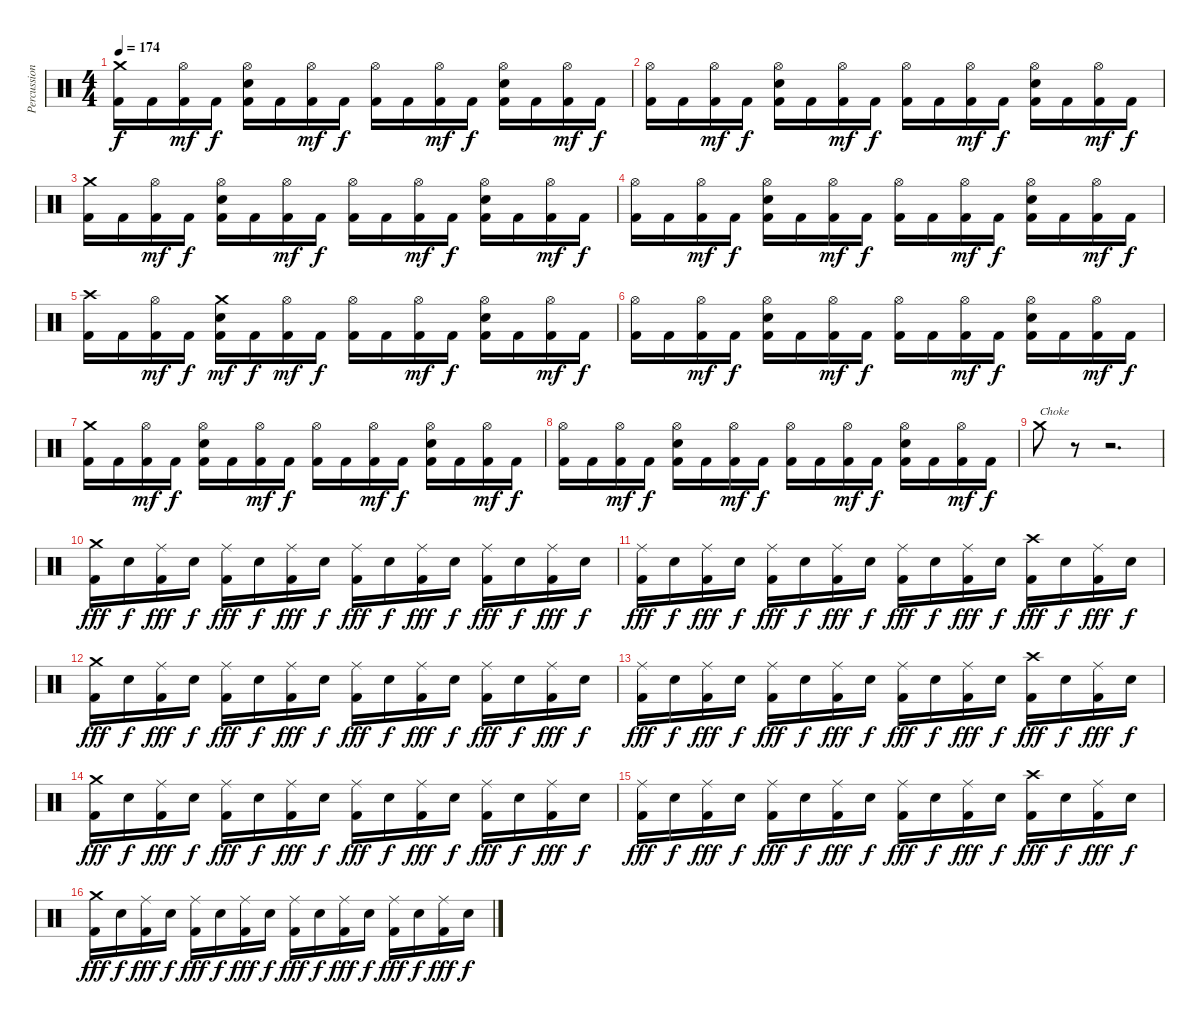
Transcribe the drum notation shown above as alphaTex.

\track ("Percussion" "Percussion") {instrument percussion}
\staff {score}
\articulation defaults
\ts (4 4)
\tempo 174
\clef neutral
\ks c
("Crash medium (hit)" "Kick (hit) 2").16{dy f} "Kick (hit) 2".16 ("Hi-Hat (open)" "Kick (hit) 2").16{dy mf} "Kick (hit) 2".16{dy f} ("Hi-Hat (open)" "Electric Snare (hit)" "Kick (hit) 2").16 "Kick (hit) 2".16 ("Hi-Hat (open)" "Kick (hit) 2").16{dy mf} "Kick (hit) 2".16{dy f} ("Hi-Hat (open)" "Kick (hit) 2").16 "Kick (hit) 2".16 ("Hi-Hat (open)" "Kick (hit) 2").16{dy mf} "Kick (hit) 2".16{dy f} ("Hi-Hat (open)" "Electric Snare (hit)" "Kick (hit) 2").16 "Kick (hit) 2".16 ("Hi-Hat (open)" "Kick (hit) 2").16{dy mf} "Kick (hit) 2".16{dy f} |
("Hi-Hat (open)" "Kick (hit) 2").16 "Kick (hit) 2".16 ("Hi-Hat (open)" "Kick (hit) 2").16{dy mf} "Kick (hit) 2".16{dy f} ("Hi-Hat (open)" "Electric Snare (hit)" "Kick (hit) 2").16 "Kick (hit) 2".16 ("Hi-Hat (open)" "Kick (hit) 2").16{dy mf} "Kick (hit) 2".16{dy f} ("Hi-Hat (open)" "Kick (hit) 2").16 "Kick (hit) 2".16 ("Hi-Hat (open)" "Kick (hit) 2").16{dy mf} "Kick (hit) 2".16{dy f} ("Hi-Hat (open)" "Electric Snare (hit)" "Kick (hit) 2").16 "Kick (hit) 2".16 ("Hi-Hat (open)" "Kick (hit) 2").16{dy mf} "Kick (hit) 2".16{dy f} |
("Crash medium (hit)" "Kick (hit) 2").16 "Kick (hit) 2".16 ("Hi-Hat (open)" "Kick (hit) 2").16{dy mf} "Kick (hit) 2".16{dy f} ("Hi-Hat (open)" "Electric Snare (hit)" "Kick (hit) 2").16 "Kick (hit) 2".16 ("Hi-Hat (open)" "Kick (hit) 2").16{dy mf} "Kick (hit) 2".16{dy f} ("Hi-Hat (open)" "Kick (hit) 2").16 "Kick (hit) 2".16 ("Hi-Hat (open)" "Kick (hit) 2").16{dy mf} "Kick (hit) 2".16{dy f} ("Hi-Hat (open)" "Electric Snare (hit)" "Kick (hit) 2").16 "Kick (hit) 2".16 ("Hi-Hat (open)" "Kick (hit) 2").16{dy mf} "Kick (hit) 2".16{dy f} |
("Hi-Hat (open)" "Kick (hit) 2").16 "Kick (hit) 2".16 ("Hi-Hat (open)" "Kick (hit) 2").16{dy mf} "Kick (hit) 2".16{dy f} ("Hi-Hat (open)" "Electric Snare (hit)" "Kick (hit) 2").16 "Kick (hit) 2".16 ("Hi-Hat (open)" "Kick (hit) 2").16{dy mf} "Kick (hit) 2".16{dy f} ("Hi-Hat (open)" "Kick (hit) 2").16 "Kick (hit) 2".16 ("Hi-Hat (open)" "Kick (hit) 2").16{dy mf} "Kick (hit) 2".16{dy f} ("Hi-Hat (open)" "Electric Snare (hit)" "Kick (hit) 2").16 "Kick (hit) 2".16 ("Hi-Hat (open)" "Kick (hit) 2").16{dy mf} "Kick (hit) 2".16{dy f} |
("Crash high (hit)" "Kick (hit) 2").16 "Kick (hit) 2".16 ("Hi-Hat (open)" "Kick (hit) 2").16{dy mf} "Kick (hit) 2".16{dy f} ("Crash medium (hit)" "Electric Snare (hit)" "Kick (hit) 2").16{dy mf} "Kick (hit) 2".16{dy f} ("Hi-Hat (open)" "Kick (hit) 2").16{dy mf} "Kick (hit) 2".16{dy f} ("Hi-Hat (open)" "Kick (hit) 2").16 "Kick (hit) 2".16 ("Hi-Hat (open)" "Kick (hit) 2").16{dy mf} "Kick (hit) 2".16{dy f} ("Hi-Hat (open)" "Electric Snare (hit)" "Kick (hit) 2").16 "Kick (hit) 2".16 ("Hi-Hat (open)" "Kick (hit) 2").16{dy mf} "Kick (hit) 2".16{dy f} |
("Hi-Hat (open)" "Kick (hit) 2").16 "Kick (hit) 2".16 ("Hi-Hat (open)" "Kick (hit) 2").16{dy mf} "Kick (hit) 2".16{dy f} ("Hi-Hat (open)" "Electric Snare (hit)" "Kick (hit) 2").16 "Kick (hit) 2".16 ("Hi-Hat (open)" "Kick (hit) 2").16{dy mf} "Kick (hit) 2".16{dy f} ("Hi-Hat (open)" "Kick (hit) 2").16 "Kick (hit) 2".16 ("Hi-Hat (open)" "Kick (hit) 2").16{dy mf} "Kick (hit) 2".16{dy f} ("Hi-Hat (open)" "Electric Snare (hit)" "Kick (hit) 2").16 "Kick (hit) 2".16 ("Hi-Hat (open)" "Kick (hit) 2").16{dy mf} "Kick (hit) 2".16{dy f} |
("Crash medium (hit)" "Kick (hit) 2").16 "Kick (hit) 2".16 ("Hi-Hat (open)" "Kick (hit) 2").16{dy mf} "Kick (hit) 2".16{dy f} ("Hi-Hat (open)" "Electric Snare (hit)" "Kick (hit) 2").16 "Kick (hit) 2".16 ("Hi-Hat (open)" "Kick (hit) 2").16{dy mf} "Kick (hit) 2".16{dy f} ("Hi-Hat (open)" "Kick (hit) 2").16 "Kick (hit) 2".16 ("Hi-Hat (open)" "Kick (hit) 2").16{dy mf} "Kick (hit) 2".16{dy f} ("Hi-Hat (open)" "Electric Snare (hit)" "Kick (hit) 2").16 "Kick (hit) 2".16 ("Hi-Hat (open)" "Kick (hit) 2").16{dy mf} "Kick (hit) 2".16{dy f} |
("Hi-Hat (open)" "Kick (hit) 2").16 "Kick (hit) 2".16 ("Hi-Hat (open)" "Kick (hit) 2").16{dy mf} "Kick (hit) 2".16{dy f} ("Hi-Hat (open)" "Electric Snare (hit)" "Kick (hit) 2").16 "Kick (hit) 2".16 ("Hi-Hat (open)" "Kick (hit) 2").16{dy mf} "Kick (hit) 2".16{dy f} ("Hi-Hat (open)" "Kick (hit) 2").16 "Kick (hit) 2".16 ("Hi-Hat (open)" "Kick (hit) 2").16{dy mf} "Kick (hit) 2".16{dy f} ("Hi-Hat (open)" "Electric Snare (hit)" "Kick (hit) 2").16 "Kick (hit) 2".16 ("Hi-Hat (open)" "Kick (hit) 2").16{dy mf} "Kick (hit) 2".16{dy f} |
"Crash medium (hit)".8{txt "Choke"} r.8{volume 6} r.2{d volume 0} |
("Crash medium (hit)" "Kick (hit) 2").16{dy fff volume 12} "Electric Snare (hit)".16{dy f} ("Ride (middle)" "Kick (hit) 2").16{dy fff} "Electric Snare (hit)".16{dy f} ("Ride (middle)" "Kick (hit) 2").16{dy fff} "Electric Snare (hit)".16{dy f} ("Ride (middle)" "Kick (hit) 2").16{dy fff} "Electric Snare (hit)".16{dy f} ("Ride (middle)" "Kick (hit) 2").16{dy fff} "Electric Snare (hit)".16{dy f} ("Ride (middle)" "Kick (hit) 2").16{dy fff} "Electric Snare (hit)".16{dy f} ("Ride (middle)" "Kick (hit) 2").16{dy fff} "Electric Snare (hit)".16{dy f} ("Ride (middle)" "Kick (hit) 2").16{dy fff} "Electric Snare (hit)".16{dy f} |
("Ride (middle)" "Kick (hit) 2").16{dy fff} "Electric Snare (hit)".16{dy f} ("Ride (middle)" "Kick (hit) 2").16{dy fff} "Electric Snare (hit)".16{dy f} ("Ride (middle)" "Kick (hit) 2").16{dy fff} "Electric Snare (hit)".16{dy f} ("Ride (middle)" "Kick (hit) 2").16{dy fff} "Electric Snare (hit)".16{dy f} ("Ride (middle)" "Kick (hit) 2").16{dy fff} "Electric Snare (hit)".16{dy f} ("Ride (middle)" "Kick (hit) 2").16{dy fff} "Electric Snare (hit)".16{dy f} ("Crash high (hit)" "Kick (hit) 2").16{dy fff} "Electric Snare (hit)".16{dy f} ("Ride (middle)" "Kick (hit) 2").16{dy fff} "Electric Snare (hit)".16{dy f} |
("Crash medium (hit)" "Kick (hit) 2").16{dy fff} "Electric Snare (hit)".16{dy f} ("Ride (middle)" "Kick (hit) 2").16{dy fff} "Electric Snare (hit)".16{dy f} ("Ride (middle)" "Kick (hit) 2").16{dy fff} "Electric Snare (hit)".16{dy f} ("Ride (middle)" "Kick (hit) 2").16{dy fff} "Electric Snare (hit)".16{dy f} ("Ride (middle)" "Kick (hit) 2").16{dy fff} "Electric Snare (hit)".16{dy f} ("Ride (middle)" "Kick (hit) 2").16{dy fff} "Electric Snare (hit)".16{dy f} ("Ride (middle)" "Kick (hit) 2").16{dy fff} "Electric Snare (hit)".16{dy f} ("Ride (middle)" "Kick (hit) 2").16{dy fff} "Electric Snare (hit)".16{dy f} |
("Ride (middle)" "Kick (hit) 2").16{dy fff} "Electric Snare (hit)".16{dy f} ("Ride (middle)" "Kick (hit) 2").16{dy fff} "Electric Snare (hit)".16{dy f} ("Ride (middle)" "Kick (hit) 2").16{dy fff} "Electric Snare (hit)".16{dy f} ("Ride (middle)" "Kick (hit) 2").16{dy fff} "Electric Snare (hit)".16{dy f} ("Ride (middle)" "Kick (hit) 2").16{dy fff} "Electric Snare (hit)".16{dy f} ("Ride (middle)" "Kick (hit) 2").16{dy fff} "Electric Snare (hit)".16{dy f} ("Crash high (hit)" "Kick (hit) 2").16{dy fff} "Electric Snare (hit)".16{dy f} ("Ride (middle)" "Kick (hit) 2").16{dy fff} "Electric Snare (hit)".16{dy f} |
("Crash medium (hit)" "Kick (hit) 2").16{dy fff} "Electric Snare (hit)".16{dy f} ("Ride (middle)" "Kick (hit) 2").16{dy fff} "Electric Snare (hit)".16{dy f} ("Ride (middle)" "Kick (hit) 2").16{dy fff} "Electric Snare (hit)".16{dy f} ("Ride (middle)" "Kick (hit) 2").16{dy fff} "Electric Snare (hit)".16{dy f} ("Ride (middle)" "Kick (hit) 2").16{dy fff} "Electric Snare (hit)".16{dy f} ("Ride (middle)" "Kick (hit) 2").16{dy fff} "Electric Snare (hit)".16{dy f} ("Ride (middle)" "Kick (hit) 2").16{dy fff} "Electric Snare (hit)".16{dy f} ("Ride (middle)" "Kick (hit) 2").16{dy fff} "Electric Snare (hit)".16{dy f} |
("Ride (middle)" "Kick (hit) 2").16{dy fff} "Electric Snare (hit)".16{dy f} ("Ride (middle)" "Kick (hit) 2").16{dy fff} "Electric Snare (hit)".16{dy f} ("Ride (middle)" "Kick (hit) 2").16{dy fff} "Electric Snare (hit)".16{dy f} ("Ride (middle)" "Kick (hit) 2").16{dy fff} "Electric Snare (hit)".16{dy f} ("Ride (middle)" "Kick (hit) 2").16{dy fff} "Electric Snare (hit)".16{dy f} ("Ride (middle)" "Kick (hit) 2").16{dy fff} "Electric Snare (hit)".16{dy f} ("Crash high (hit)" "Kick (hit) 2").16{dy fff} "Electric Snare (hit)".16{dy f} ("Ride (middle)" "Kick (hit) 2").16{dy fff} "Electric Snare (hit)".16{dy f} |
("Crash medium (hit)" "Kick (hit) 2").16{dy fff} "Electric Snare (hit)".16{dy f} ("Ride (middle)" "Kick (hit) 2").16{dy fff} "Electric Snare (hit)".16{dy f} ("Ride (middle)" "Kick (hit) 2").16{dy fff} "Electric Snare (hit)".16{dy f} ("Ride (middle)" "Kick (hit) 2").16{dy fff} "Electric Snare (hit)".16{dy f} ("Ride (middle)" "Kick (hit) 2").16{dy fff} "Electric Snare (hit)".16{dy f} ("Ride (middle)" "Kick (hit) 2").16{dy fff} "Electric Snare (hit)".16{dy f} ("Ride (middle)" "Kick (hit) 2").16{dy fff} "Electric Snare (hit)".16{dy f} ("Ride (middle)" "Kick (hit) 2").16{dy fff} "Electric Snare (hit)".16{dy f}
